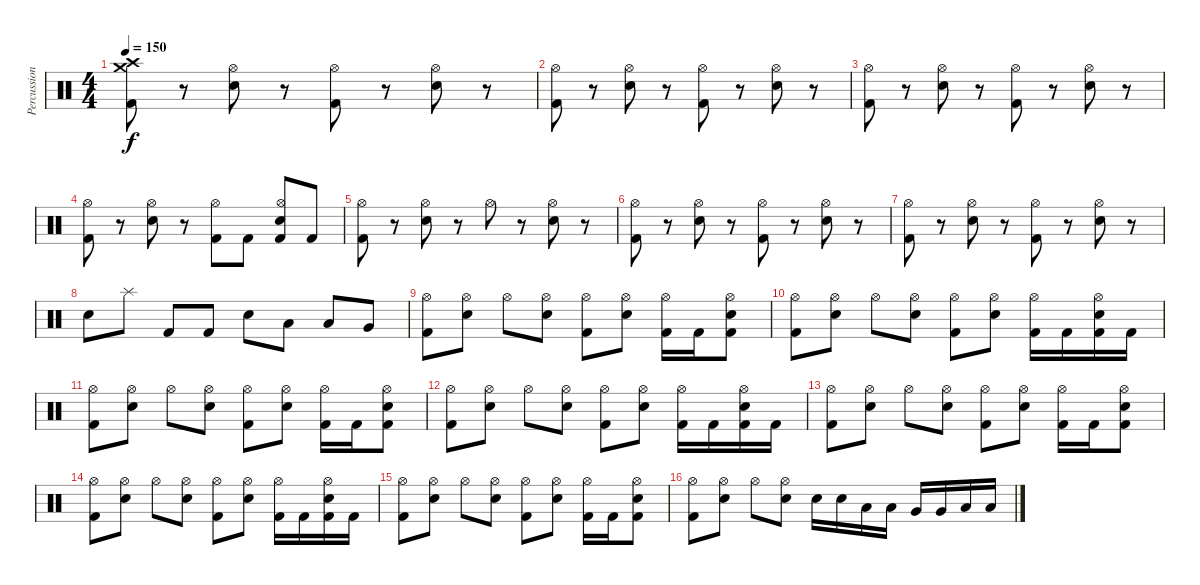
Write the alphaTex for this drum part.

\track ("Percussion" "Percussion") {instrument percussion}
\staff {score}
\articulation defaults
\ts (4 4)
\tempo 150
\clef neutral
\ks c
("Crash high (hit)" "Kick (hit) 2" "Crash medium (hit)").8{dy f} r.8 ("Hi-Hat (open)" "Electric Snare (hit)").8 r.8 ("Hi-Hat (open)" "Kick (hit) 2").8 r.8 ("Hi-Hat (open)" "Electric Snare (hit)").8 r.8 |
("Hi-Hat (open)" "Kick (hit) 2").8 r.8 ("Hi-Hat (open)" "Electric Snare (hit)").8 r.8 ("Hi-Hat (open)" "Kick (hit) 2").8 r.8 ("Hi-Hat (open)" "Electric Snare (hit)").8 r.8 |
("Hi-Hat (open)" "Kick (hit) 2").8 r.8 ("Hi-Hat (open)" "Electric Snare (hit)").8 r.8 ("Hi-Hat (open)" "Kick (hit) 2").8 r.8 ("Hi-Hat (open)" "Electric Snare (hit)").8 r.8 |
("Hi-Hat (open)" "Kick (hit) 2").8 r.8 ("Hi-Hat (open)" "Electric Snare (hit)").8 r.8 ("Hi-Hat (open)" "Kick (hit) 2").8 "Kick (hit) 2".8 ("Hi-Hat (open)" "Kick (hit) 2" "Electric Snare (hit)").8 "Kick (hit) 2".8 |
("Hi-Hat (open)" "Kick (hit) 2").8 r.8 ("Hi-Hat (open)" "Electric Snare (hit)").8 r.8 "Hi-Hat (open)".8 r.8 ("Hi-Hat (open)" "Electric Snare (hit)").8 r.8 |
("Hi-Hat (open)" "Kick (hit) 2").8 r.8 ("Hi-Hat (open)" "Electric Snare (hit)").8 r.8 ("Hi-Hat (open)" "Kick (hit) 2").8 r.8 ("Hi-Hat (open)" "Electric Snare (hit)").8 r.8 |
("Hi-Hat (open)" "Kick (hit) 2").8 r.8 ("Hi-Hat (open)" "Electric Snare (hit)").8 r.8 ("Hi-Hat (open)" "Kick (hit) 2").8 r.8 ("Hi-Hat (open)" "Electric Snare (hit)").8 r.8 |
"Electric Snare (hit)".8 "Splash (hit)".8 "Kick (hit) 2".8 "Kick (hit) 2".8 "Electric Snare (hit)".8 "Low Tom (hit)".8 "Low Tom (hit)".8 "Very Low Tom (hit)".8 |
("Hi-Hat (open)" "Kick (hit) 2").8 ("Hi-Hat (open)" "Electric Snare (hit)").8 "Hi-Hat (open)".8 ("Hi-Hat (open)" "Electric Snare (hit)").8 ("Hi-Hat (open)" "Kick (hit) 2").8 ("Hi-Hat (open)" "Electric Snare (hit)").8 ("Hi-Hat (open)" "Kick (hit) 2").16 "Kick (hit) 2".16 ("Hi-Hat (open)" "Kick (hit) 2" "Electric Snare (hit)").8 |
("Hi-Hat (open)" "Kick (hit) 2").8 ("Hi-Hat (open)" "Electric Snare (hit)").8 "Hi-Hat (open)".8 ("Hi-Hat (open)" "Electric Snare (hit)").8 ("Hi-Hat (open)" "Kick (hit) 2").8 ("Hi-Hat (open)" "Electric Snare (hit)").8 ("Hi-Hat (open)" "Kick (hit) 2").16 "Kick (hit) 2".16 ("Hi-Hat (open)" "Kick (hit) 2" "Electric Snare (hit)").16 "Kick (hit) 2".16 |
("Hi-Hat (open)" "Kick (hit) 2").8 ("Hi-Hat (open)" "Electric Snare (hit)").8 "Hi-Hat (open)".8 ("Hi-Hat (open)" "Electric Snare (hit)").8 ("Hi-Hat (open)" "Kick (hit) 2").8 ("Hi-Hat (open)" "Electric Snare (hit)").8 ("Hi-Hat (open)" "Kick (hit) 2").16 "Kick (hit) 2".16 ("Hi-Hat (open)" "Kick (hit) 2" "Electric Snare (hit)").8 |
("Hi-Hat (open)" "Kick (hit) 2").8 ("Hi-Hat (open)" "Electric Snare (hit)").8 "Hi-Hat (open)".8 ("Hi-Hat (open)" "Electric Snare (hit)").8 ("Hi-Hat (open)" "Kick (hit) 2").8 ("Hi-Hat (open)" "Electric Snare (hit)").8 ("Hi-Hat (open)" "Kick (hit) 2").16 "Kick (hit) 2".16 ("Hi-Hat (open)" "Kick (hit) 2" "Electric Snare (hit)").16 "Kick (hit) 2".16 |
("Hi-Hat (open)" "Kick (hit) 2").8 ("Hi-Hat (open)" "Electric Snare (hit)").8 "Hi-Hat (open)".8 ("Hi-Hat (open)" "Electric Snare (hit)").8 ("Hi-Hat (open)" "Kick (hit) 2").8 ("Hi-Hat (open)" "Electric Snare (hit)").8 ("Hi-Hat (open)" "Kick (hit) 2").16 "Kick (hit) 2".16 ("Hi-Hat (open)" "Kick (hit) 2" "Electric Snare (hit)").8 |
("Hi-Hat (open)" "Kick (hit) 2").8 ("Hi-Hat (open)" "Electric Snare (hit)").8 "Hi-Hat (open)".8 ("Hi-Hat (open)" "Electric Snare (hit)").8 ("Hi-Hat (open)" "Kick (hit) 2").8 ("Hi-Hat (open)" "Electric Snare (hit)").8 ("Hi-Hat (open)" "Kick (hit) 2").16 "Kick (hit) 2".16 ("Hi-Hat (open)" "Kick (hit) 2" "Electric Snare (hit)").16 "Kick (hit) 2".16 |
("Hi-Hat (open)" "Kick (hit) 2").8 ("Hi-Hat (open)" "Electric Snare (hit)").8 "Hi-Hat (open)".8 ("Hi-Hat (open)" "Electric Snare (hit)").8 ("Hi-Hat (open)" "Kick (hit) 2").8 ("Hi-Hat (open)" "Electric Snare (hit)").8 ("Hi-Hat (open)" "Kick (hit) 2").16 "Kick (hit) 2".16 ("Hi-Hat (open)" "Kick (hit) 2" "Electric Snare (hit)").8 |
("Hi-Hat (open)" "Kick (hit) 2").8 ("Hi-Hat (open)" "Electric Snare (hit)").8 "Hi-Hat (open)".8 ("Hi-Hat (open)" "Electric Snare (hit)").8 "Electric Snare (hit)".16 "Electric Snare (hit)".16 "Low Tom (hit)".16 "Low Tom (hit)".16 "Very Low Tom (hit)".16 "Very Low Tom (hit)".16 "Low Floor Tom (hit)".16 "Low Floor Tom (hit)".16
